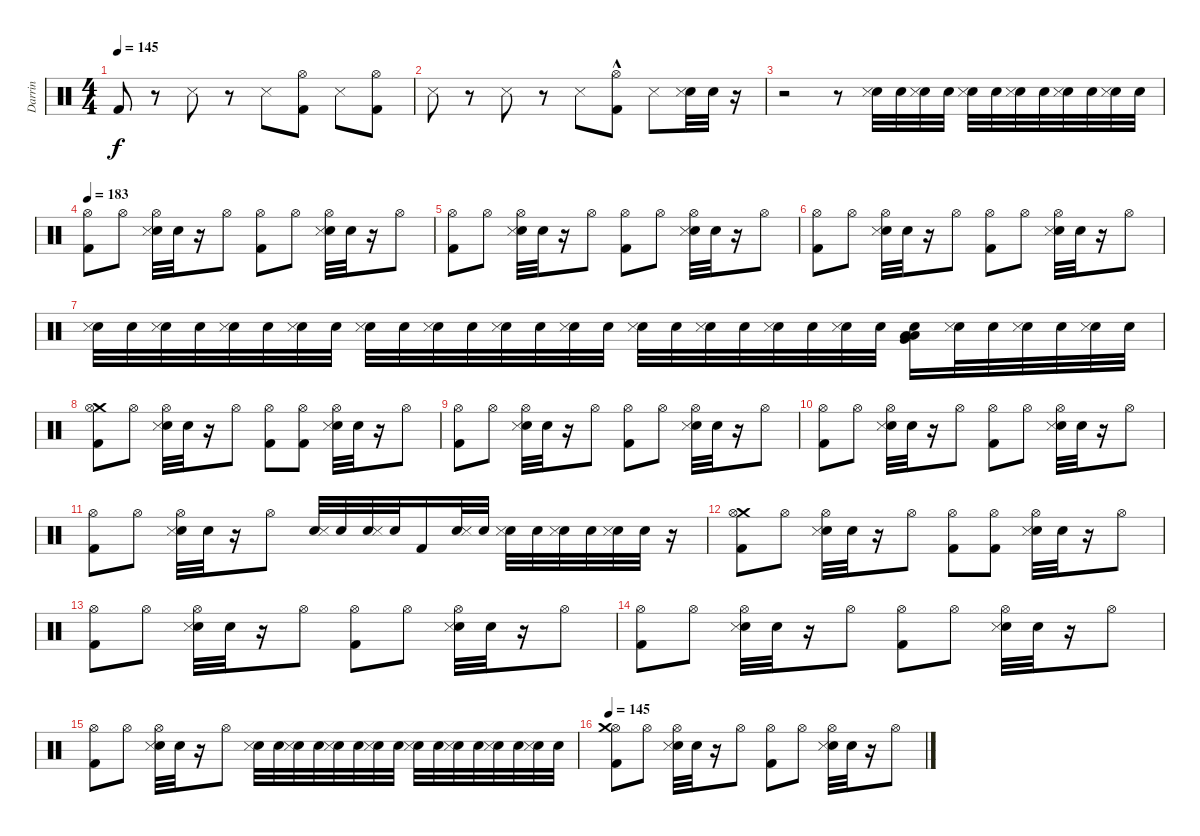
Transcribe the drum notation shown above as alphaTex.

\track ("Darrin" "Darrin") {instrument percussion}
\staff {score}
\articulation defaults
\ts (4 4)
\tempo 145
\clef neutral
\ks c "Kick (hit) 2".8{dy f}
r.8 "Snare (side stick) 3".8 r.8 "Snare (side stick) 3".8 ("Hi-Hat (open)" "Kick (hit) 2").8 "Snare (side stick) 3".8 ("Hi-Hat (open)" "Kick (hit) 2").8 |
"Snare (side stick) 3".8 r.8 "Snare (side stick) 3".8 r.8 "Snare (side stick) 3".8 ("Hi-Hat (open)" "Kick (hit) 2"{hac}).8 "Snare (side stick) 3".8 ("Snare (hit) 2" "Snare (side stick) 3").32 "Snare (hit) 2".32 r.16 |
r.2 r.8 ("Snare (hit) 2" "Snare (side stick) 3").32 "Snare (hit) 2".32 ("Snare (hit) 2" "Snare (side stick) 3").32 "Snare (hit) 2".32 ("Snare (hit) 2" "Snare (side stick) 3").32 "Snare (hit) 2".32 ("Snare (hit) 2" "Snare (side stick) 3").32 "Snare (hit) 2".32 ("Snare (hit) 2" "Snare (side stick) 3").32 "Snare (hit) 2".32 ("Snare (hit) 2" "Snare (side stick) 3").32 "Snare (hit) 2".32 |
\tempo 183
("Kick (hit) 2" "Hi-Hat (open)").8 "Hi-Hat (open)".8 ("Hi-Hat (open)" "Snare (hit) 2" "Snare (side stick) 3").32 "Snare (hit) 2".32 r.16 "Hi-Hat (open)".8 ("Hi-Hat (open)" "Kick (hit) 2").8 "Hi-Hat (open)".8 ("Hi-Hat (open)" "Snare (hit) 2" "Snare (side stick) 3").32 "Snare (hit) 2".32 r.16 "Hi-Hat (open)".8 |
("Kick (hit) 2" "Hi-Hat (open)").8 "Hi-Hat (open)".8 ("Hi-Hat (open)" "Snare (hit) 2" "Snare (side stick) 3").32 "Snare (hit) 2".32 r.16 "Hi-Hat (open)".8 ("Hi-Hat (open)" "Kick (hit) 2").8 "Hi-Hat (open)".8 ("Hi-Hat (open)" "Snare (hit) 2" "Snare (side stick) 3").32 "Snare (hit) 2".32 r.16 "Hi-Hat (open)".8 |
("Kick (hit) 2" "Hi-Hat (open)").8 "Hi-Hat (open)".8 ("Hi-Hat (open)" "Snare (hit) 2" "Snare (side stick) 3").32 "Snare (hit) 2".32 r.16 "Hi-Hat (open)".8 ("Hi-Hat (open)" "Kick (hit) 2").8 "Hi-Hat (open)".8 ("Hi-Hat (open)" "Snare (hit) 2" "Snare (side stick) 3").32 "Snare (hit) 2".32 r.16 "Hi-Hat (open)".8 |
("Snare (hit) 2" "Snare (side stick) 3").32 "Snare (hit) 2".32 ("Snare (hit) 2" "Snare (side stick) 3").32 "Snare (hit) 2".32 ("Snare (hit) 2" "Snare (side stick) 3").32 "Snare (hit) 2".32 ("Snare (hit) 2" "Snare (side stick) 3").32 "Snare (hit) 2".32 ("Snare (hit) 2" "Snare (side stick) 3").32 "Snare (hit) 2".32 ("Snare (hit) 2" "Snare (side stick) 3").32 "Snare (hit) 2".32 ("Snare (hit) 2" "Snare (side stick) 3").32 "Snare (hit) 2".32 ("Snare (hit) 2" "Snare (side stick) 3").32 "Snare (hit) 2".32 ("Snare (hit) 2" "Snare (side stick) 3").32 "Snare (hit) 2".32 ("Snare (hit) 2" "Snare (side stick) 3").32 "Snare (hit) 2".32 ("Snare (hit) 2" "Snare (side stick) 3").32 "Snare (hit) 2".32 ("Snare (hit) 2" "Snare (side stick) 3").32 "Snare (hit) 2".32 ("Low Floor Tom (hit)" "Very Low Tom (hit)" "Low Tom (hit)" "Snare (hit) 2").16 ("Snare (hit) 2" "Snare (side stick) 3").32 "Snare (hit) 2".32 ("Snare (hit) 2" "Snare (side stick) 3").32 "Snare (hit) 2".32 ("Snare (hit) 2" "Snare (side stick) 3").32 "Snare (hit) 2".32 |
("Kick (hit) 2" "Crash medium (hit)" "Hi-Hat (open)").8 "Hi-Hat (open)".8 ("Snare (hit) 2" "Snare (side stick) 3" "Hi-Hat (open)").32 "Snare (hit) 2".32 r.16 "Hi-Hat (open)".8 ("Kick (hit) 2" "Hi-Hat (open)").8 ("Hi-Hat (open)" "Kick (hit) 2").8 ("Snare (hit) 2" "Snare (side stick) 3" "Hi-Hat (open)").32 "Snare (hit) 2".32 r.16 "Hi-Hat (open)".8 |
("Kick (hit) 2" "Hi-Hat (open)").8 "Hi-Hat (open)".8 ("Snare (hit) 2" "Snare (side stick) 3" "Hi-Hat (open)").32 "Snare (hit) 2".32 r.16 "Hi-Hat (open)".8 ("Kick (hit) 2" "Hi-Hat (open)").8 "Hi-Hat (open)".8 ("Snare (hit) 2" "Snare (side stick) 3" "Hi-Hat (open)").32 "Snare (hit) 2".32 r.16 "Hi-Hat (open)".8 |
("Kick (hit) 2" "Hi-Hat (open)").8 "Hi-Hat (open)".8 ("Snare (hit) 2" "Snare (side stick) 3" "Hi-Hat (open)").32 "Snare (hit) 2".32 r.16 "Hi-Hat (open)".8 ("Kick (hit) 2" "Hi-Hat (open)").8 "Hi-Hat (open)".8 ("Snare (hit) 2" "Snare (side stick) 3" "Hi-Hat (open)").32 "Snare (hit) 2".32 r.16 "Hi-Hat (open)".8 |
("Kick (hit) 2" "Hi-Hat (open)").8 "Hi-Hat (open)".8 ("Snare (hit) 2" "Snare (side stick) 3" "Hi-Hat (open)").32 "Snare (hit) 2".32 r.16 "Hi-Hat (open)".8 ("Snare (hit) 2" "Snare (side stick) 3").32 "Snare (hit) 2".32 ("Snare (hit) 2" "Snare (side stick) 3").32 "Snare (hit) 2".32 "Kick (hit) 2".16 ("Snare (hit) 2" "Snare (side stick) 3").32 "Snare (hit) 2".32 ("Snare (hit) 2" "Snare (side stick) 3").32 "Snare (hit) 2".32 ("Snare (hit) 2" "Snare (side stick) 3").32 "Snare (hit) 2".32 ("Snare (hit) 2" "Snare (side stick) 3").32 "Snare (hit) 2".32 r.16 |
("Kick (hit) 2" "Crash medium (hit)" "Hi-Hat (open)").8 "Hi-Hat (open)".8 ("Snare (hit) 2" "Snare (side stick) 3" "Hi-Hat (open)").32 "Snare (hit) 2".32 r.16 "Hi-Hat (open)".8 ("Kick (hit) 2" "Hi-Hat (open)").8 ("Hi-Hat (open)" "Kick (hit) 2").8 ("Snare (hit) 2" "Snare (side stick) 3" "Hi-Hat (open)").32 "Snare (hit) 2".32 r.16 "Hi-Hat (open)".8 |
("Kick (hit) 2" "Hi-Hat (open)").8 "Hi-Hat (open)".8 ("Snare (hit) 2" "Snare (side stick) 3" "Hi-Hat (open)").32 "Snare (hit) 2".32 r.16 "Hi-Hat (open)".8 ("Kick (hit) 2" "Hi-Hat (open)").8 "Hi-Hat (open)".8 ("Snare (hit) 2" "Snare (side stick) 3" "Hi-Hat (open)").32 "Snare (hit) 2".32 r.16 "Hi-Hat (open)".8 |
("Kick (hit) 2" "Hi-Hat (open)").8 "Hi-Hat (open)".8 ("Snare (hit) 2" "Snare (side stick) 3" "Hi-Hat (open)").32 "Snare (hit) 2".32 r.16 "Hi-Hat (open)".8 ("Kick (hit) 2" "Hi-Hat (open)").8 "Hi-Hat (open)".8 ("Snare (hit) 2" "Snare (side stick) 3" "Hi-Hat (open)").32 "Snare (hit) 2".32 r.16 "Hi-Hat (open)".8 |
("Kick (hit) 2" "Hi-Hat (open)").8 "Hi-Hat (open)".8 ("Hi-Hat (open)" "Snare (hit) 2" "Snare (side stick) 3").32 "Snare (hit) 2".32 r.16 "Hi-Hat (open)".8 ("Snare (hit) 2" "Snare (side stick) 3").32 "Snare (hit) 2".32 ("Snare (hit) 2" "Snare (side stick) 3").32 "Snare (hit) 2".32 ("Snare (hit) 2" "Snare (side stick) 3").32 "Snare (hit) 2".32 ("Snare (hit) 2" "Snare (side stick) 3").32 "Snare (hit) 2".32 ("Snare (hit) 2" "Snare (side stick) 3").32 "Snare (hit) 2".32 ("Snare (hit) 2" "Snare (side stick) 3").32 "Snare (hit) 2".32 ("Snare (hit) 2" "Snare (side stick) 3").32 "Snare (hit) 2".32 ("Snare (hit) 2" "Snare (side stick) 3").32 "Snare (hit) 2".32 |
\tempo 145
("Kick (hit) 2" "Hi-Hat (open)" "Crash medium (hit)").8 "Hi-Hat (open)".8 ("Snare (hit) 2" "Snare (side stick) 3" "Hi-Hat (open)").32 "Snare (hit) 2".32 r.16 "Hi-Hat (open)".8 ("Kick (hit) 2" "Hi-Hat (open)").8 "Hi-Hat (open)".8 ("Snare (hit) 2" "Snare (side stick) 3" "Hi-Hat (open)").32 "Snare (hit) 2".32 r.16 "Hi-Hat (open)".8
